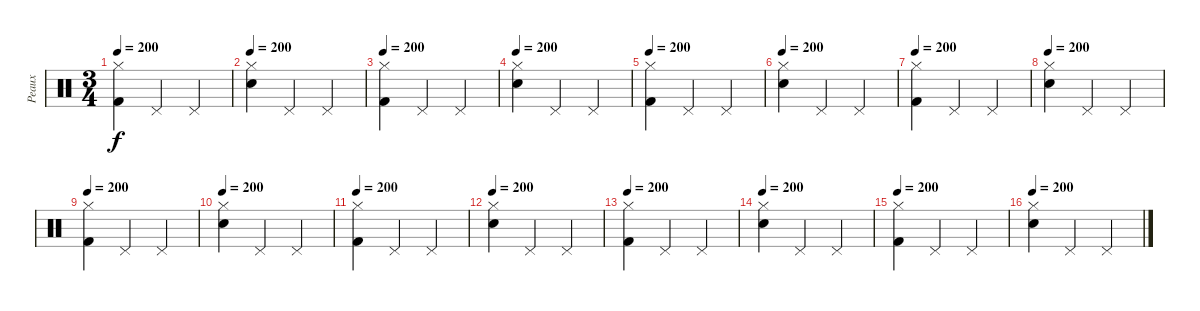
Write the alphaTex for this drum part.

\track ("Peaux" "Peaux") {instrument percussion}
\staff {score}
\articulation defaults
\ts (3 4)
\tempo 200
\clef neutral
\ks c
("Hi-Hat (closed)" "Kick (hit) 2").4{dy f} "Pedal Hi-Hat (hit)".4 "Pedal Hi-Hat (hit)".4 |
\tempo 200
("Hi-Hat (closed)" "Snare (hit) 2").4 "Pedal Hi-Hat (hit)".4 "Pedal Hi-Hat (hit)".4 |
\tempo 200
("Hi-Hat (closed)" "Kick (hit) 2").4 "Pedal Hi-Hat (hit)".4 "Pedal Hi-Hat (hit)".4 |
\tempo 200
("Hi-Hat (closed)" "Snare (hit) 2").4 "Pedal Hi-Hat (hit)".4 "Pedal Hi-Hat (hit)".4 |
\tempo 200
("Hi-Hat (closed)" "Kick (hit) 2").4 "Pedal Hi-Hat (hit)".4 "Pedal Hi-Hat (hit)".4 |
\tempo 200
("Hi-Hat (closed)" "Snare (hit) 2").4 "Pedal Hi-Hat (hit)".4 "Pedal Hi-Hat (hit)".4 |
\tempo 200
("Hi-Hat (closed)" "Kick (hit) 2").4 "Pedal Hi-Hat (hit)".4 "Pedal Hi-Hat (hit)".4 |
\tempo 200
("Hi-Hat (closed)" "Snare (hit) 2").4 "Pedal Hi-Hat (hit)".4 "Pedal Hi-Hat (hit)".4 |
\tempo 200
("Hi-Hat (closed)" "Kick (hit) 2").4 "Pedal Hi-Hat (hit)".4 "Pedal Hi-Hat (hit)".4 |
\tempo 200
("Hi-Hat (closed)" "Snare (hit) 2").4 "Pedal Hi-Hat (hit)".4 "Pedal Hi-Hat (hit)".4 |
\tempo 200
("Hi-Hat (closed)" "Kick (hit) 2").4 "Pedal Hi-Hat (hit)".4 "Pedal Hi-Hat (hit)".4 |
\tempo 200
("Hi-Hat (closed)" "Snare (hit) 2").4 "Pedal Hi-Hat (hit)".4 "Pedal Hi-Hat (hit)".4 |
\tempo 200
("Hi-Hat (closed)" "Kick (hit) 2").4 "Pedal Hi-Hat (hit)".4 "Pedal Hi-Hat (hit)".4 |
\tempo 200
("Hi-Hat (closed)" "Snare (hit) 2").4 "Pedal Hi-Hat (hit)".4 "Pedal Hi-Hat (hit)".4 |
\tempo 200
("Hi-Hat (closed)" "Kick (hit) 2").4 "Pedal Hi-Hat (hit)".4 "Pedal Hi-Hat (hit)".4 |
\tempo 200
("Hi-Hat (closed)" "Snare (hit) 2").4 "Pedal Hi-Hat (hit)".4 "Pedal Hi-Hat (hit)".4
